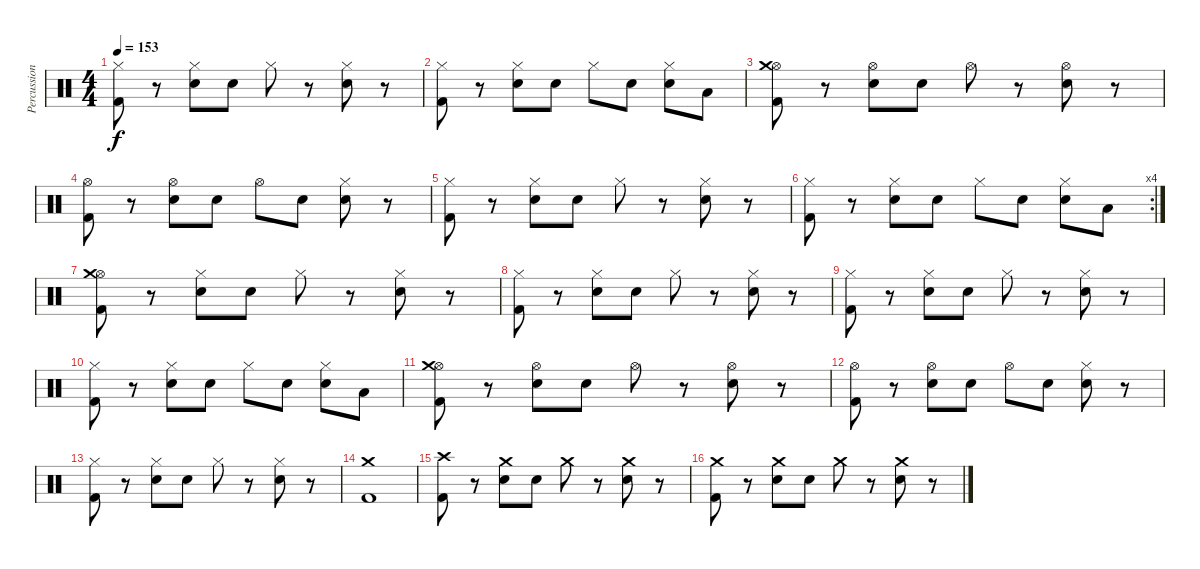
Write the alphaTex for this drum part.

\track ("Percussion" "Percussion") {instrument percussion}
\staff {score}
\articulation defaults
\ts (4 4)
\tempo 153
\clef neutral
\ks c
("Hi-Hat (closed)" "Kick (hit) 2").8{dy f} r.8 ("Hi-Hat (closed)" "Electric Snare (hit)").8 "Electric Snare (hit)".8 "Hi-Hat (closed)".8 r.8 ("Hi-Hat (closed)" "Electric Snare (hit)").8 r.8 |
("Hi-Hat (closed)" "Kick (hit) 2").8 r.8 ("Hi-Hat (closed)" "Electric Snare (hit)").8 "Electric Snare (hit)".8 "Hi-Hat (closed)".8 "Electric Snare (hit)".8 ("Hi-Hat (closed)" "Electric Snare (hit)").8 "Low Floor Tom (hit)".8 |
("Hi-Hat (open)" "Crash medium (hit)" "Kick (hit) 2").8 r.8 ("Hi-Hat (open)" "Electric Snare (hit)").8 "Electric Snare (hit)".8 "Hi-Hat (open)".8 r.8 ("Hi-Hat (open)" "Electric Snare (hit)").8 r.8 |
("Hi-Hat (open)" "Kick (hit) 2").8 r.8 ("Hi-Hat (open)" "Electric Snare (hit)").8 "Electric Snare (hit)".8 "Hi-Hat (open)".8 "Electric Snare (hit)".8 ("Hi-Hat (closed)" "Electric Snare (hit)").8 r.8 |
("Hi-Hat (closed)" "Kick (hit) 2").8 r.8 ("Hi-Hat (closed)" "Electric Snare (hit)").8 "Electric Snare (hit)".8 "Hi-Hat (closed)".8 r.8 ("Hi-Hat (closed)" "Electric Snare (hit)").8 r.8 |
\rc 4
("Hi-Hat (closed)" "Kick (hit) 2").8 r.8 ("Hi-Hat (closed)" "Electric Snare (hit)").8 "Electric Snare (hit)".8 "Hi-Hat (closed)".8 "Electric Snare (hit)".8 ("Hi-Hat (closed)" "Electric Snare (hit)").8 "Low Floor Tom (hit)".8 |
("Hi-Hat (open)" "Crash medium (hit)" "Kick (hit) 2").8 r.8 ("Hi-Hat (closed)" "Electric Snare (hit)").8 "Electric Snare (hit)".8 "Hi-Hat (closed)".8 r.8 ("Hi-Hat (closed)" "Electric Snare (hit)").8 r.8 |
("Hi-Hat (closed)" "Kick (hit) 2").8 r.8 ("Hi-Hat (closed)" "Electric Snare (hit)").8 "Electric Snare (hit)".8 "Hi-Hat (closed)".8 r.8 ("Hi-Hat (closed)" "Electric Snare (hit)").8 r.8 |
("Hi-Hat (closed)" "Kick (hit) 2").8 r.8 ("Hi-Hat (closed)" "Electric Snare (hit)").8 "Electric Snare (hit)".8 "Hi-Hat (closed)".8 r.8 ("Hi-Hat (closed)" "Electric Snare (hit)").8 r.8 |
("Hi-Hat (closed)" "Kick (hit) 2").8 r.8 ("Hi-Hat (closed)" "Electric Snare (hit)").8 "Electric Snare (hit)".8 "Hi-Hat (closed)".8 "Electric Snare (hit)".8 ("Hi-Hat (closed)" "Electric Snare (hit)").8 "Low Floor Tom (hit)".8 |
("Hi-Hat (open)" "Crash medium (hit)" "Kick (hit) 2").8 r.8 ("Hi-Hat (open)" "Electric Snare (hit)").8 "Electric Snare (hit)".8 "Hi-Hat (open)".8 r.8 ("Hi-Hat (open)" "Electric Snare (hit)").8 r.8 |
("Hi-Hat (open)" "Kick (hit) 2").8 r.8 ("Hi-Hat (open)" "Electric Snare (hit)").8 "Electric Snare (hit)".8 "Hi-Hat (open)".8 "Electric Snare (hit)".8 ("Hi-Hat (closed)" "Electric Snare (hit)").8 r.8 |
("Hi-Hat (closed)" "Kick (hit) 2").8 r.8 ("Hi-Hat (closed)" "Electric Snare (hit)").8 "Electric Snare (hit)".8 "Hi-Hat (closed)".8 r.8 ("Hi-Hat (closed)" "Electric Snare (hit)").8 r.8 |
("Crash medium (hit)" "Kick (hit) 2").1 |
\section ("" "")
("Crash high (hit)" "Kick (hit) 2").8 r.8 ("Crash medium (hit)" "Electric Snare (hit)").8 "Electric Snare (hit)".8 "Crash medium (hit)".8 r.8 ("Crash medium (hit)" "Electric Snare (hit)").8 r.8 |
("Crash medium (hit)" "Kick (hit) 2").8 r.8 ("Crash medium (hit)" "Electric Snare (hit)").8 "Electric Snare (hit)".8 "Crash medium (hit)".8 r.8 ("Crash medium (hit)" "Electric Snare (hit)").8 r.8
